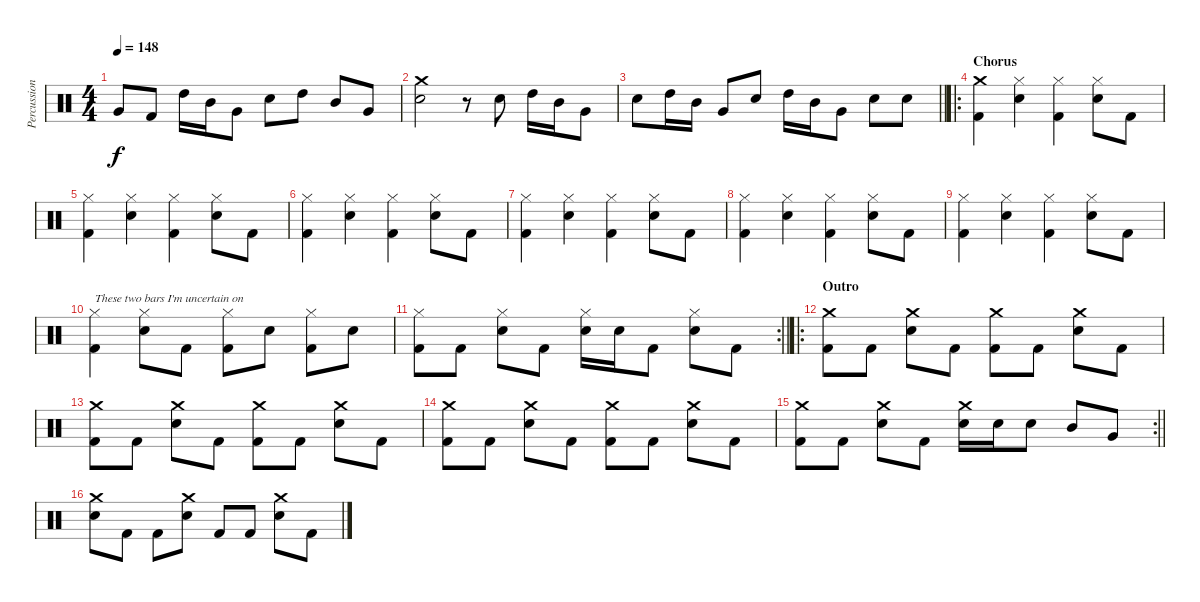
\track ("Percussion - Dennis Wolfe" "Percussion") {instrument percussion}
\staff {score}
\articulation defaults
\ts (4 4)
\tempo 148
\clef neutral
\ks c "Very Low Tom (hit)".8{dy f} "Kick (hit) 2".8 "High Tom (hit)".16 "Mid Tom (hit)".16 "Very Low Tom (hit)".8 "Snare (hit) 2".8 "High Tom (hit)".8 "Mid Tom (hit)".8 "Very Low Tom (hit)".8
|
("Crash medium (hit)" "Snare (hit) 2").2 r.8 "Snare (hit) 2".8 "High Tom (hit)".16 "Mid Tom (hit)".16 "Very Low Tom (hit)".8 |
\barLineRight lightlight "Snare (hit) 2".8 "High Tom (hit)".16 "Mid Tom (hit)".16 "Very Low Tom (hit)".8 "Snare (hit) 2".8 "High Tom (hit)".16 "Mid Tom (hit)".16 "Very Low Tom (hit)".8 "Snare (hit) 2".8 "Snare (hit) 2".8
|
\ro
\section ("" "Chorus")
("Crash medium (hit)" "Kick (hit) 2").4 ("Hi-Hat (closed)" "Snare (hit) 2").4 ("Hi-Hat (closed)" "Kick (hit) 2").4 ("Hi-Hat (closed)" "Snare (hit) 2").8 "Kick (hit) 2".8 |
("Hi-Hat (closed)" "Kick (hit) 2").4 ("Hi-Hat (closed)" "Snare (hit) 2").4 ("Hi-Hat (closed)" "Kick (hit) 2").4 ("Hi-Hat (closed)" "Snare (hit) 2").8 "Kick (hit) 2".8 |
("Hi-Hat (closed)" "Kick (hit) 2").4 ("Hi-Hat (closed)" "Snare (hit) 2").4 ("Hi-Hat (closed)" "Kick (hit) 2").4 ("Hi-Hat (closed)" "Snare (hit) 2").8 "Kick (hit) 2".8 |
("Hi-Hat (closed)" "Kick (hit) 2").4 ("Hi-Hat (closed)" "Snare (hit) 2").4 ("Hi-Hat (closed)" "Kick (hit) 2").4 ("Hi-Hat (closed)" "Snare (hit) 2").8 "Kick (hit) 2".8 |
("Hi-Hat (closed)" "Kick (hit) 2").4 ("Hi-Hat (closed)" "Snare (hit) 2").4 ("Hi-Hat (closed)" "Kick (hit) 2").4 ("Hi-Hat (closed)" "Snare (hit) 2").8 "Kick (hit) 2".8 |
("Hi-Hat (closed)" "Kick (hit) 2").4 ("Hi-Hat (closed)" "Snare (hit) 2").4 ("Hi-Hat (closed)" "Kick (hit) 2").4 ("Hi-Hat (closed)" "Snare (hit) 2").8 "Kick (hit) 2".8 |
("Hi-Hat (closed)" "Kick (hit) 2").4{txt "These two bars I'm uncertain on"} ("Hi-Hat (closed)" "Snare (hit) 2").8 "Kick (hit) 2".8 ("Hi-Hat (closed)" "Kick (hit) 2").8 "Snare (hit) 2".8 ("Hi-Hat (closed)" "Kick (hit) 2").8 "Snare (hit) 2".8 |
\rc 2
\barLineRight lightlight
("Hi-Hat (closed)" "Kick (hit) 2").8 "Kick (hit) 2".8 ("Hi-Hat (closed)" "Snare (hit) 2").8 "Kick (hit) 2".8 ("Hi-Hat (closed)" "Snare (hit) 2").16 "Snare (hit) 2".16 "Kick (hit) 2".8 ("Hi-Hat (closed)" "Snare (hit) 2").8 "Kick (hit) 2".8 |
\ro
\section ("" "Outro")
("Crash medium (hit)" "Kick (hit) 2").8 "Kick (hit) 2".8 ("Crash medium (hit)" "Snare (hit) 2").8 "Kick (hit) 2".8 ("Crash medium (hit)" "Kick (hit) 2").8 "Kick (hit) 2".8 ("Crash medium (hit)" "Snare (hit) 2").8 "Kick (hit) 2".8 |
("Crash medium (hit)" "Kick (hit) 2").8 "Kick (hit) 2".8 ("Crash medium (hit)" "Snare (hit) 2").8 "Kick (hit) 2".8 ("Crash medium (hit)" "Kick (hit) 2").8 "Kick (hit) 2".8 ("Crash medium (hit)" "Snare (hit) 2").8 "Kick (hit) 2".8 |
("Crash medium (hit)" "Kick (hit) 2").8 "Kick (hit) 2".8 ("Crash medium (hit)" "Snare (hit) 2").8 "Kick (hit) 2".8 ("Crash medium (hit)" "Kick (hit) 2").8 "Kick (hit) 2".8 ("Crash medium (hit)" "Snare (hit) 2").8 "Kick (hit) 2".8 |
\rc 2
\barLineRight lightlight
("Crash medium (hit)" "Kick (hit) 2").8 "Kick (hit) 2".8 ("Crash medium (hit)" "Snare (hit) 2").8 "Kick (hit) 2".8 ("Crash medium (hit)" "Snare (hit) 2").16 "Snare (hit) 2".16 "Snare (hit) 2".8 "Mid Tom (hit)".8 "Very Low Tom (hit)".8 |
("Crash medium (hit)" "Snare (hit) 2").8 "Kick (hit) 2".8 "Kick (hit) 2".8 ("Crash medium (hit)" "Snare (hit) 2").8 "Kick (hit) 2".8 "Kick (hit) 2".8 ("Crash medium (hit)" "Snare (hit) 2").8 "Kick (hit) 2".8
